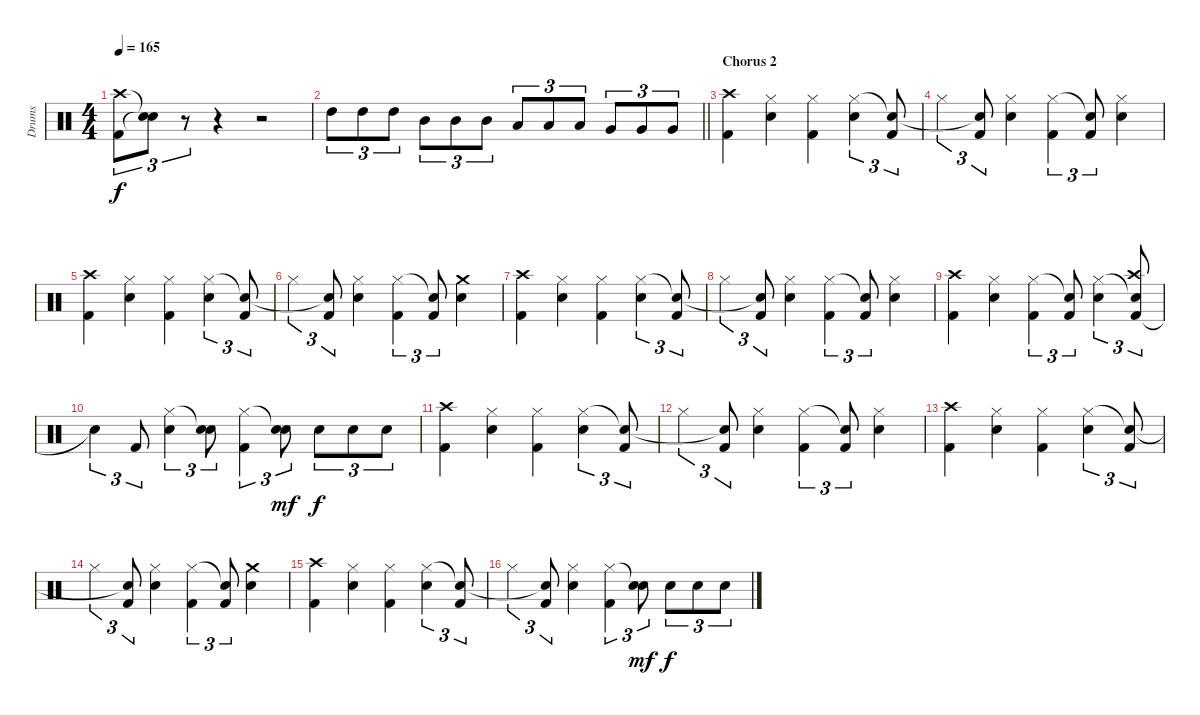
\track ("Drums" "Drums") {instrument percussion}
\staff {score}
\articulation defaults
\ts (4 4)
\tempo 165
\clef neutral
\ks c
("Kick (hit) 2" "Crash high (hit)").8{tu (3 2) dy f} ("Snare (hit)"{t} "Snare (hit)"{t}).8{tu (3 2)} r.8{tu (3 2)} r.4 r.2 |
\barLineRight lightlight "High Tom (hit)".8{tu (3 2)} "High Tom (hit)".8{tu (3 2)} "High Tom (hit)".8{tu (3 2)} "Mid Tom (hit)".8{tu (3 2)} "Mid Tom (hit)".8{tu (3 2)} "Mid Tom (hit)".8{tu (3 2)} "Low Tom (hit)".8{tu (3 2)} "Low Tom (hit)".8{tu (3 2)} "Low Tom (hit)".8{tu (3 2)} "Very Low Tom (hit)".8{tu (3 2)} "Very Low Tom (hit)".8{tu (3 2)} "Very Low Tom (hit)".8{tu (3 2)}
|
\section ("" "Chorus 2")
("Kick (hit) 2" "Crash high (hit)").4 ("Snare (hit) 2" "Hi-Hat (closed)").4 ("Kick (hit) 2" "Hi-Hat (closed)").4 ("Snare (hit) 2" "Hi-Hat (closed)").4{tu (3 2)} ("Kick (hit) 2" "Snare (hit)"{t}).8{tu (3 2)} |
"Hi-Hat (closed)".4{tu (3 2)} ("Kick (hit) 2" "Snare (hit)"{t}).8{tu (3 2)} ("Snare (hit) 2" "Hi-Hat (closed)").4 ("Kick (hit) 2" "Hi-Hat (closed)").4{tu (3 2)} ("Kick (hit) 2" "Snare (hit)"{t}).8{tu (3 2)} ("Snare (hit) 2" "Hi-Hat (closed)").4 |
("Kick (hit) 2" "Crash high (hit)").4 ("Snare (hit) 2" "Hi-Hat (closed)").4 ("Kick (hit) 2" "Hi-Hat (closed)").4 ("Snare (hit) 2" "Hi-Hat (closed)").4{tu (3 2)} ("Kick (hit) 2" "Snare (hit)"{t}).8{tu (3 2)} |
"Hi-Hat (closed)".4{tu (3 2)} ("Kick (hit) 2" "Snare (hit)"{t}).8{tu (3 2)} ("Snare (hit) 2" "Hi-Hat (closed)").4 ("Kick (hit) 2" "Hi-Hat (closed)").4{tu (3 2)} ("Kick (hit) 2" "Snare (hit)"{t}).8{tu (3 2)} ("Snare (hit) 2" "Crash medium (hit)").4 |
("Kick (hit) 2" "Crash high (hit)").4 ("Snare (hit) 2" "Hi-Hat (closed)").4 ("Kick (hit) 2" "Hi-Hat (closed)").4 ("Snare (hit) 2" "Hi-Hat (closed)").4{tu (3 2)} ("Kick (hit) 2" "Snare (hit)"{t}).8{tu (3 2)} |
"Hi-Hat (closed)".4{tu (3 2)} ("Kick (hit) 2" "Snare (hit)"{t}).8{tu (3 2)} ("Snare (hit) 2" "Hi-Hat (closed)").4 ("Kick (hit) 2" "Hi-Hat (closed)").4{tu (3 2)} ("Kick (hit) 2" "Snare (hit)"{t}).8{tu (3 2)} ("Snare (hit) 2" "Hi-Hat (closed)").4 |
("Kick (hit) 2" "Crash high (hit)").4 ("Snare (hit) 2" "Hi-Hat (closed)").4 ("Kick (hit) 2" "Hi-Hat (closed)").4{tu (3 2)} ("Kick (hit) 2" "Snare (hit)"{t}).8{tu (3 2)} ("Snare (hit) 2" "Hi-Hat (closed)").4{tu (3 2)} ("Kick (hit) 2" "Snare (hit)"{t} "Crash high (hit)").8{tu (3 2)} |
"Snare (hit)"{t}.4{tu (3 2)} "Kick (hit) 2".8{tu (3 2)} ("Snare (hit) 2" "Hi-Hat (closed)").4{tu (3 2)} ("Snare (hit) 2" "Snare (hit)"{t}).8{tu (3 2)} ("Kick (hit) 2" "Hi-Hat (closed)").4{tu (3 2)} ("Snare (hit) 2" "Snare (hit)"{t}).8{tu (3 2) dy mf} "Snare (hit) 2".8{tu (3 2) dy f} "Snare (hit) 2".8{tu (3 2)} "Snare (hit) 2".8{tu (3 2)} |
("Kick (hit) 2" "Crash high (hit)").4 ("Snare (hit) 2" "Hi-Hat (closed)").4 ("Kick (hit) 2" "Hi-Hat (closed)").4 ("Snare (hit) 2" "Hi-Hat (closed)").4{tu (3 2)} ("Kick (hit) 2" "Snare (hit)"{t}).8{tu (3 2)} |
"Hi-Hat (closed)".4{tu (3 2)} ("Kick (hit) 2" "Snare (hit)"{t}).8{tu (3 2)} ("Snare (hit) 2" "Hi-Hat (closed)").4 ("Kick (hit) 2" "Hi-Hat (closed)").4{tu (3 2)} ("Kick (hit) 2" "Snare (hit)"{t}).8{tu (3 2)} ("Snare (hit) 2" "Hi-Hat (closed)").4 |
("Kick (hit) 2" "Crash high (hit)").4 ("Snare (hit) 2" "Hi-Hat (closed)").4 ("Kick (hit) 2" "Hi-Hat (closed)").4 ("Snare (hit) 2" "Hi-Hat (closed)").4{tu (3 2)} ("Kick (hit) 2" "Snare (hit)"{t}).8{tu (3 2)} |
"Hi-Hat (closed)".4{tu (3 2)} ("Kick (hit) 2" "Snare (hit)"{t}).8{tu (3 2)} ("Snare (hit) 2" "Hi-Hat (closed)").4 ("Kick (hit) 2" "Hi-Hat (closed)").4{tu (3 2)} ("Kick (hit) 2" "Snare (hit)"{t}).8{tu (3 2)} ("Snare (hit) 2" "Crash medium (hit)").4 |
("Kick (hit) 2" "Crash high (hit)").4 ("Snare (hit) 2" "Hi-Hat (closed)").4 ("Kick (hit) 2" "Hi-Hat (closed)").4 ("Snare (hit) 2" "Hi-Hat (closed)").4{tu (3 2)} ("Kick (hit) 2" "Snare (hit)"{t}).8{tu (3 2)} |
"Hi-Hat (closed)".4{tu (3 2)} ("Kick (hit) 2" "Snare (hit)"{t}).8{tu (3 2)} ("Snare (hit) 2" "Hi-Hat (closed)").4 ("Kick (hit) 2" "Hi-Hat (closed)").4{tu (3 2)} ("Snare (hit) 2" "Snare (hit)"{t}).8{tu (3 2) dy mf} "Snare (hit) 2".8{tu (3 2) dy f} "Snare (hit) 2".8{tu (3 2)} "Snare (hit) 2".8{tu (3 2)}
